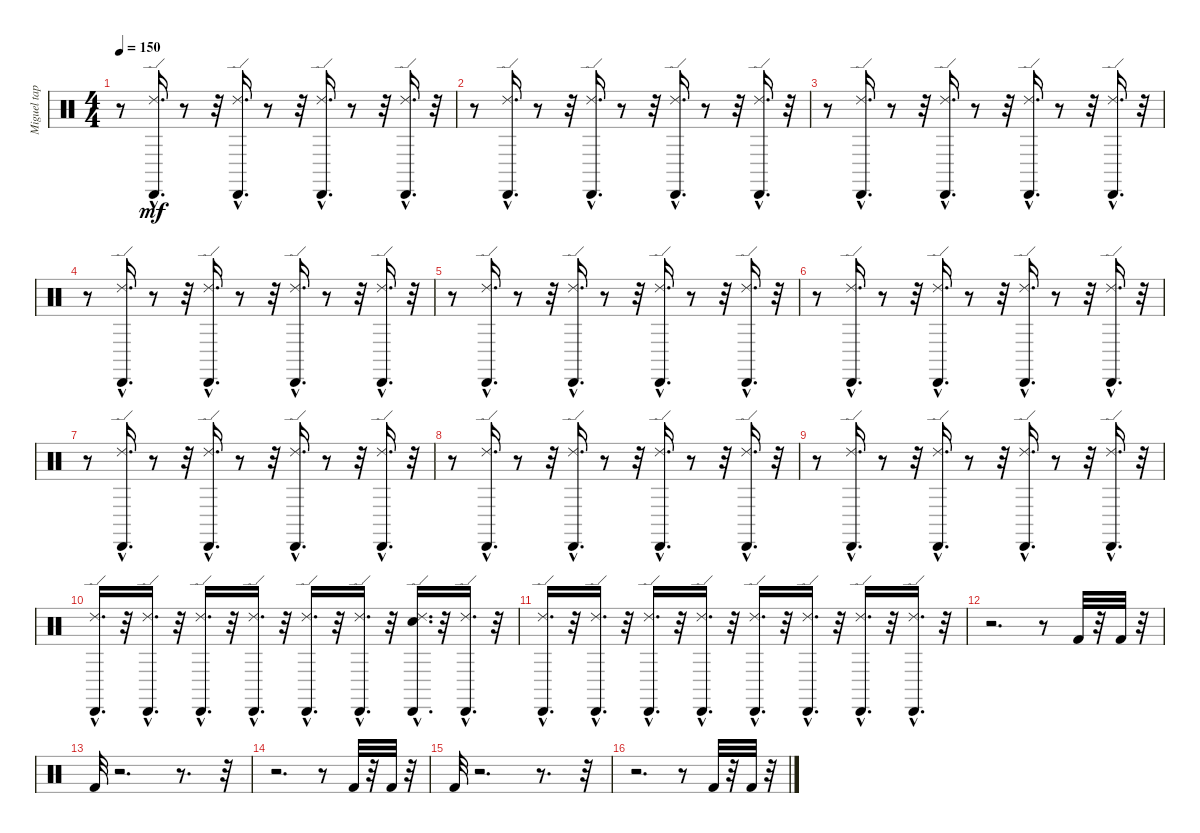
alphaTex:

\track ("Miguel tapia" "Miguel tap") {instrument percussion}
\staff {score}
\articulation defaults
\ts (4 4)
\tempo 150
\clef neutral
\ks c
r.8{dy mf} ("Ride (edge) 2"{hac} "Cabasa (hit)"{hac}).16{d} r.8 r.32 ("Ride (edge) 2"{hac} "Cabasa (hit)"{hac}).16{d} r.8 r.32 ("Cabasa (hit)"{hac} "Ride (edge) 2"{hac}).16{d} r.8 r.32 ("Cabasa (hit)"{hac} "Ride (edge) 2"{hac}).16{d} r.32 |
r.8 ("Cabasa (hit)"{hac} "Ride (edge) 2"{hac}).16{d} r.8 r.32 ("Ride (edge) 2"{hac} "Cabasa (hit)"{hac}).16{d} r.8 r.32 ("Cabasa (hit)"{hac} "Ride (edge) 2"{hac}).16{d} r.8 r.32 ("Cabasa (hit)"{hac} "Ride (edge) 2"{hac}).16{d} r.32 |
r.8 ("Ride (edge) 2"{hac} "Cabasa (hit)"{hac}).16{d} r.8 r.32 ("Ride (edge) 2"{hac} "Cabasa (hit)"{hac}).16{d} r.8 r.32 ("Cabasa (hit)"{hac} "Ride (edge) 2"{hac}).16{d} r.8 r.32 ("Ride (edge) 2"{hac} "Cabasa (hit)"{hac}).16{d} r.32 |
r.8 ("Cabasa (hit)"{hac} "Ride (edge) 2"{hac}).16{d} r.8 r.32 ("Ride (edge) 2"{hac} "Cabasa (hit)"{hac}).16{d} r.8 r.32 ("Cabasa (hit)"{hac} "Ride (edge) 2"{hac}).16{d} r.8 r.32 ("Cabasa (hit)"{hac} "Ride (edge) 2"{hac}).16{d} r.32 |
r.8 ("Ride (edge) 2"{hac} "Cabasa (hit)"{hac}).16{d} r.8 r.32 ("Ride (edge) 2"{hac} "Cabasa (hit)"{hac}).16{d} r.8 r.32 ("Cabasa (hit)"{hac} "Ride (edge) 2"{hac}).16{d} r.8 r.32 ("Ride (edge) 2"{hac} "Cabasa (hit)"{hac}).16{d} r.32 |
r.8 ("Cabasa (hit)"{hac} "Ride (edge) 2"{hac}).16{d} r.8 r.32 ("Cabasa (hit)"{hac} "Ride (edge) 2"{hac}).16{d} r.8 r.32 ("Ride (edge) 2"{hac} "Cabasa (hit)"{hac}).16{d} r.8 r.32 ("Cabasa (hit)"{hac} "Ride (edge) 2"{hac}).16{d} r.32 |
r.8 ("Cabasa (hit)"{hac} "Ride (edge) 2"{hac}).16{d} r.8 r.32 ("Ride (edge) 2"{hac} "Cabasa (hit)"{hac}).16{d} r.8 r.32 ("Ride (edge) 2"{hac} "Cabasa (hit)"{hac}).16{d} r.8 r.32 ("Ride (edge) 2"{hac} "Cabasa (hit)"{hac}).16{d} r.32 |
r.8 ("Cabasa (hit)"{hac} "Ride (edge) 2"{hac}).16{d} r.8 r.32 ("Ride (edge) 2"{hac} "Cabasa (hit)"{hac}).16{d} r.8 r.32 ("Cabasa (hit)"{hac} "Ride (edge) 2"{hac}).16{d} r.8 r.32 ("Ride (edge) 2"{hac} "Cabasa (hit)"{hac}).16{d} r.32 |
r.8 ("Cabasa (hit)"{hac} "Ride (edge) 2"{hac}).16{d} r.8 r.32 ("Ride (edge) 2"{hac} "Cabasa (hit)"{hac}).16{d} r.8 r.32 ("Cabasa (hit)"{hac} "Ride (edge) 2"{hac}).16{d} r.8 r.32 ("Cabasa (hit)"{hac} "Ride (edge) 2"{hac}).16{d} r.32 |
("Ride (edge) 2"{hac} "Cabasa (hit)"{hac}).16{d} r.32 ("Cabasa (hit)"{hac} "Ride (edge) 2"{hac}).16{d} r.32 ("Cabasa (hit)"{hac} "Ride (edge) 2"{hac}).16{d} r.32 ("Ride (edge) 2"{hac} "Cabasa (hit)"{hac}).16{d} r.32 ("Ride (edge) 2"{hac} "Cabasa (hit)"{hac}).16{d} r.32 ("Ride (edge) 2"{hac} "Cabasa (hit)"{hac}).16{d} r.32 ("Cabasa (hit)"{hac} "Ride (edge) 2"{hac} "Electric Snare (hit)"{hac}).16{d} r.32 ("Ride (edge) 2"{hac} "Cabasa (hit)"{hac}).16{d} r.32 |
("Cabasa (hit)"{hac} "Ride (edge) 2"{hac}).16{d} r.32 ("Ride (edge) 2"{hac} "Cabasa (hit)"{hac}).16{d} r.32 ("Cabasa (hit)"{hac} "Ride (edge) 2"{hac}).16{d} r.32 ("Ride (edge) 2"{hac} "Cabasa (hit)"{hac}).16{d} r.32 ("Ride (edge) 2"{hac} "Cabasa (hit)"{hac}).16{d} r.32 ("Ride (edge) 2"{hac} "Cabasa (hit)"{hac}).16{d} r.32 ("Ride (edge) 2"{hac} "Cabasa (hit)"{hac}).16{d} r.32 ("Ride (edge) 2"{hac} "Cabasa (hit)"{hac}).16{d} r.32 |
r.2{d} r.8 "Kick (hit) 2".32 r.32 "Kick (hit) 2".32 r.32 |
"Kick (hit) 2".32 r.2{d} r.8{d} r.32 |
r.2{d} r.8 "Kick (hit) 2".32 r.32 "Kick (hit) 2".32 r.32 |
"Kick (hit) 2".32 r.2{d} r.8{d} r.32 |
r.2{d} r.8 "Kick (hit) 2".32 r.32 "Kick (hit) 2".32 r.32
